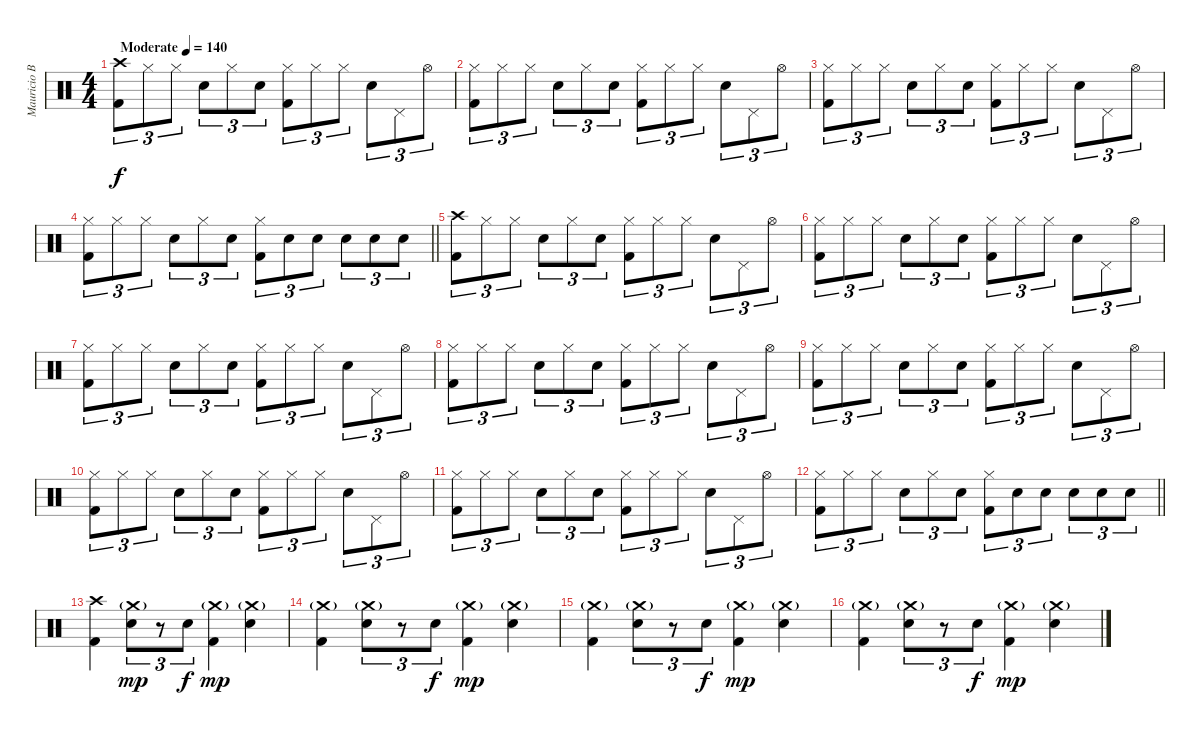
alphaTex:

\track ("Mauricio Basualto" "Mauricio B") {instrument percussion}
\staff {score}
\articulation defaults
\ts (4 4)
\tempo (140 "Moderate")
\clef neutral
\ks c
("Crash high (hit)" "Kick (hit) 2").8{tu (3 2) dy f} "Hi-Hat (closed)".8{tu (3 2)} "Hi-Hat (closed)".8{tu (3 2)} "Electric Snare (hit)".8{tu (3 2)} "Hi-Hat (closed)".8{tu (3 2)} "Electric Snare (hit)".8{tu (3 2)} ("Hi-Hat (closed)" "Kick (hit) 2").8{tu (3 2)} "Hi-Hat (closed)".8{tu (3 2)} "Hi-Hat (closed)".8{tu (3 2)} "Electric Snare (hit)".8{tu (3 2)} "Pedal Hi-Hat (hit)".8{tu (3 2)} "Hi-Hat (open)".8{tu (3 2)} |
("Hi-Hat (closed)" "Kick (hit) 2").8{tu (3 2)} "Hi-Hat (closed)".8{tu (3 2)} "Hi-Hat (closed)".8{tu (3 2)} "Electric Snare (hit)".8{tu (3 2)} "Hi-Hat (closed)".8{tu (3 2)} "Electric Snare (hit)".8{tu (3 2)} ("Hi-Hat (closed)" "Kick (hit) 2").8{tu (3 2)} "Hi-Hat (closed)".8{tu (3 2)} "Hi-Hat (closed)".8{tu (3 2)} "Electric Snare (hit)".8{tu (3 2)} "Pedal Hi-Hat (hit)".8{tu (3 2)} "Hi-Hat (open)".8{tu (3 2)} |
("Hi-Hat (closed)" "Kick (hit) 2").8{tu (3 2)} "Hi-Hat (closed)".8{tu (3 2)} "Hi-Hat (closed)".8{tu (3 2)} "Electric Snare (hit)".8{tu (3 2)} "Hi-Hat (closed)".8{tu (3 2)} "Electric Snare (hit)".8{tu (3 2)} ("Hi-Hat (closed)" "Kick (hit) 2").8{tu (3 2)} "Hi-Hat (closed)".8{tu (3 2)} "Hi-Hat (closed)".8{tu (3 2)} "Electric Snare (hit)".8{tu (3 2)} "Pedal Hi-Hat (hit)".8{tu (3 2)} "Hi-Hat (open)".8{tu (3 2)} |
\barLineRight lightlight
("Hi-Hat (closed)" "Kick (hit) 2").8{tu (3 2)} "Hi-Hat (closed)".8{tu (3 2)} "Hi-Hat (closed)".8{tu (3 2)} "Electric Snare (hit)".8{tu (3 2)} "Hi-Hat (closed)".8{tu (3 2)} "Electric Snare (hit)".8{tu (3 2)} ("Hi-Hat (closed)" "Kick (hit) 2").8{tu (3 2)} "Electric Snare (hit)".8{tu (3 2)} "Electric Snare (hit)".8{tu (3 2)} "Electric Snare (hit)".8{tu (3 2)} "Electric Snare (hit)".8{tu (3 2)} "Electric Snare (hit)".8{tu (3 2)} |
("Crash high (hit)" "Kick (hit) 2").8{tu (3 2)} "Hi-Hat (closed)".8{tu (3 2)} "Hi-Hat (closed)".8{tu (3 2)} "Electric Snare (hit)".8{tu (3 2)} "Hi-Hat (closed)".8{tu (3 2)} "Electric Snare (hit)".8{tu (3 2)} ("Hi-Hat (closed)" "Kick (hit) 2").8{tu (3 2)} "Hi-Hat (closed)".8{tu (3 2)} "Hi-Hat (closed)".8{tu (3 2)} "Electric Snare (hit)".8{tu (3 2)} "Pedal Hi-Hat (hit)".8{tu (3 2)} "Hi-Hat (open)".8{tu (3 2)} |
("Hi-Hat (closed)" "Kick (hit) 2").8{tu (3 2)} "Hi-Hat (closed)".8{tu (3 2)} "Hi-Hat (closed)".8{tu (3 2)} "Electric Snare (hit)".8{tu (3 2)} "Hi-Hat (closed)".8{tu (3 2)} "Electric Snare (hit)".8{tu (3 2)} ("Hi-Hat (closed)" "Kick (hit) 2").8{tu (3 2)} "Hi-Hat (closed)".8{tu (3 2)} "Hi-Hat (closed)".8{tu (3 2)} "Electric Snare (hit)".8{tu (3 2)} "Pedal Hi-Hat (hit)".8{tu (3 2)} "Hi-Hat (open)".8{tu (3 2)} |
("Hi-Hat (closed)" "Kick (hit) 2").8{tu (3 2)} "Hi-Hat (closed)".8{tu (3 2)} "Hi-Hat (closed)".8{tu (3 2)} "Electric Snare (hit)".8{tu (3 2)} "Hi-Hat (closed)".8{tu (3 2)} "Electric Snare (hit)".8{tu (3 2)} ("Hi-Hat (closed)" "Kick (hit) 2").8{tu (3 2)} "Hi-Hat (closed)".8{tu (3 2)} "Hi-Hat (closed)".8{tu (3 2)} "Electric Snare (hit)".8{tu (3 2)} "Pedal Hi-Hat (hit)".8{tu (3 2)} "Hi-Hat (open)".8{tu (3 2)} |
("Hi-Hat (closed)" "Kick (hit) 2").8{tu (3 2)} "Hi-Hat (closed)".8{tu (3 2)} "Hi-Hat (closed)".8{tu (3 2)} "Electric Snare (hit)".8{tu (3 2)} "Hi-Hat (closed)".8{tu (3 2)} "Electric Snare (hit)".8{tu (3 2)} ("Hi-Hat (closed)" "Kick (hit) 2").8{tu (3 2)} "Hi-Hat (closed)".8{tu (3 2)} "Hi-Hat (closed)".8{tu (3 2)} "Electric Snare (hit)".8{tu (3 2)} "Pedal Hi-Hat (hit)".8{tu (3 2)} "Hi-Hat (open)".8{tu (3 2)} |
("Hi-Hat (closed)" "Kick (hit) 2").8{tu (3 2)} "Hi-Hat (closed)".8{tu (3 2)} "Hi-Hat (closed)".8{tu (3 2)} "Electric Snare (hit)".8{tu (3 2)} "Hi-Hat (closed)".8{tu (3 2)} "Electric Snare (hit)".8{tu (3 2)} ("Hi-Hat (closed)" "Kick (hit) 2").8{tu (3 2)} "Hi-Hat (closed)".8{tu (3 2)} "Hi-Hat (closed)".8{tu (3 2)} "Electric Snare (hit)".8{tu (3 2)} "Pedal Hi-Hat (hit)".8{tu (3 2)} "Hi-Hat (open)".8{tu (3 2)} |
("Hi-Hat (closed)" "Kick (hit) 2").8{tu (3 2)} "Hi-Hat (closed)".8{tu (3 2)} "Hi-Hat (closed)".8{tu (3 2)} "Electric Snare (hit)".8{tu (3 2)} "Hi-Hat (closed)".8{tu (3 2)} "Electric Snare (hit)".8{tu (3 2)} ("Hi-Hat (closed)" "Kick (hit) 2").8{tu (3 2)} "Hi-Hat (closed)".8{tu (3 2)} "Hi-Hat (closed)".8{tu (3 2)} "Electric Snare (hit)".8{tu (3 2)} "Pedal Hi-Hat (hit)".8{tu (3 2)} "Hi-Hat (open)".8{tu (3 2)} |
("Hi-Hat (closed)" "Kick (hit) 2").8{tu (3 2)} "Hi-Hat (closed)".8{tu (3 2)} "Hi-Hat (closed)".8{tu (3 2)} "Electric Snare (hit)".8{tu (3 2)} "Hi-Hat (closed)".8{tu (3 2)} "Electric Snare (hit)".8{tu (3 2)} ("Hi-Hat (closed)" "Kick (hit) 2").8{tu (3 2)} "Hi-Hat (closed)".8{tu (3 2)} "Hi-Hat (closed)".8{tu (3 2)} "Electric Snare (hit)".8{tu (3 2)} "Pedal Hi-Hat (hit)".8{tu (3 2)} "Hi-Hat (open)".8{tu (3 2)} |
\barLineRight lightlight
("Hi-Hat (closed)" "Kick (hit) 2").8{tu (3 2)} "Hi-Hat (closed)".8{tu (3 2)} "Hi-Hat (closed)".8{tu (3 2)} "Electric Snare (hit)".8{tu (3 2)} "Hi-Hat (closed)".8{tu (3 2)} "Electric Snare (hit)".8{tu (3 2)} ("Hi-Hat (closed)" "Kick (hit) 2").8{tu (3 2)} "Electric Snare (hit)".8{tu (3 2)} "Electric Snare (hit)".8{tu (3 2)} "Electric Snare (hit)".8{tu (3 2)} "Electric Snare (hit)".8{tu (3 2)} "Electric Snare (hit)".8{tu (3 2)} |
\section ("" "")
("Crash high (hit)" "Kick (hit) 2").4 ("Crash medium (hit)"{g} "Electric Snare (hit)").8{tu (3 2) dy mp} r.8{tu (3 2)} "Electric Snare (hit)".8{tu (3 2) dy f} ("Crash medium (hit)"{g} "Kick (hit) 2").4{dy mp} ("Crash medium (hit)"{g} "Electric Snare (hit)").4 |
("Crash medium (hit)"{g} "Kick (hit) 2").4 ("Crash medium (hit)"{g} "Electric Snare (hit)").8{tu (3 2)} r.8{tu (3 2)} "Electric Snare (hit)".8{tu (3 2) dy f} ("Crash medium (hit)"{g} "Kick (hit) 2").4{dy mp} ("Crash medium (hit)"{g} "Electric Snare (hit)").4 |
("Crash medium (hit)"{g} "Kick (hit) 2").4 ("Crash medium (hit)"{g} "Electric Snare (hit)").8{tu (3 2)} r.8{tu (3 2)} "Electric Snare (hit)".8{tu (3 2) dy f} ("Crash medium (hit)"{g} "Kick (hit) 2").4{dy mp} ("Crash medium (hit)"{g} "Electric Snare (hit)").4 |
("Crash medium (hit)"{g} "Kick (hit) 2").4 ("Crash medium (hit)"{g} "Electric Snare (hit)").8{tu (3 2)} r.8{tu (3 2)} "Electric Snare (hit)".8{tu (3 2) dy f} ("Crash medium (hit)"{g} "Kick (hit) 2").4{dy mp} ("Crash medium (hit)"{g} "Electric Snare (hit)").4
